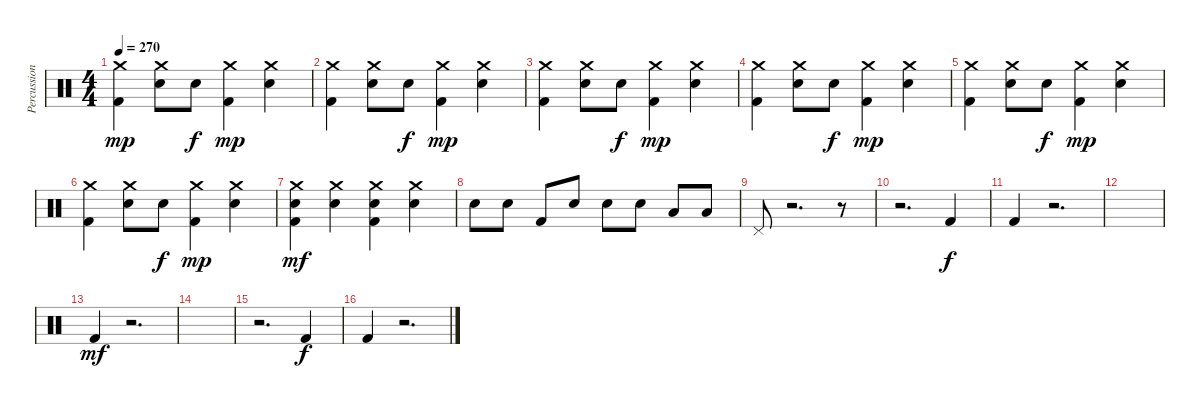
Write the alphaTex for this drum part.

\track ("Percussion" "Percussion") {instrument percussion}
\staff {score}
\articulation defaults
\ts (4 4)
\tempo 270
\clef neutral
\ks c
("Crash medium (hit)" "Kick (hit) 2").4{dy mp} ("Crash medium (hit)" "Electric Snare (hit)").8 "Electric Snare (hit)".8{dy f} ("Crash medium (hit)" "Kick (hit) 2").4{dy mp} ("Crash medium (hit)" "Electric Snare (hit)").4 |
("Crash medium (hit)" "Kick (hit) 2").4 ("Crash medium (hit)" "Electric Snare (hit)").8 "Electric Snare (hit)".8{dy f} ("Crash medium (hit)" "Kick (hit) 2").4{dy mp} ("Crash medium (hit)" "Electric Snare (hit)").4 |
("Crash medium (hit)" "Kick (hit) 2").4 ("Crash medium (hit)" "Electric Snare (hit)").8 "Electric Snare (hit)".8{dy f} ("Crash medium (hit)" "Kick (hit) 2").4{dy mp} ("Crash medium (hit)" "Electric Snare (hit)").4 |
("Crash medium (hit)" "Kick (hit) 2").4 ("Crash medium (hit)" "Electric Snare (hit)").8 "Electric Snare (hit)".8{dy f} ("Crash medium (hit)" "Kick (hit) 2").4{dy mp} ("Crash medium (hit)" "Electric Snare (hit)").4 |
("Crash medium (hit)" "Kick (hit) 2").4 ("Crash medium (hit)" "Electric Snare (hit)").8 "Electric Snare (hit)".8{dy f} ("Crash medium (hit)" "Kick (hit) 2").4{dy mp} ("Crash medium (hit)" "Electric Snare (hit)").4 |
("Crash medium (hit)" "Kick (hit) 2").4 ("Crash medium (hit)" "Electric Snare (hit)").8 "Electric Snare (hit)".8{dy f} ("Crash medium (hit)" "Kick (hit) 2").4{dy mp} ("Crash medium (hit)" "Electric Snare (hit)").4 |
("Crash medium (hit)" "Electric Snare (hit)" "Kick (hit) 2").4{dy mf} ("Crash medium (hit)" "Electric Snare (hit)").4 ("Crash medium (hit)" "Electric Snare (hit)" "Kick (hit) 2").4 ("Crash medium (hit)" "Electric Snare (hit)").4 |
"Electric Snare (hit)".8 "Electric Snare (hit)".8 "Kick (hit) 2".8 "Electric Snare (hit)".8 "Electric Snare (hit)".8 "Electric Snare (hit)".8 "Low Tom (hit)".8 "Low Floor Tom (hit)".8 |
"Pedal Hi-Hat (hit)".8 r.2{d} r.8 |
r.2{d} "Kick (hit) 2".4{dy f} |
"Kick (hit) 2".4 r.2{d} |
|
"Kick (hit) 2".4{dy mf} r.2{d} |
|
r.2{d} "Kick (hit) 2".4{dy f} |
"Kick (hit) 2".4 r.2{d}
